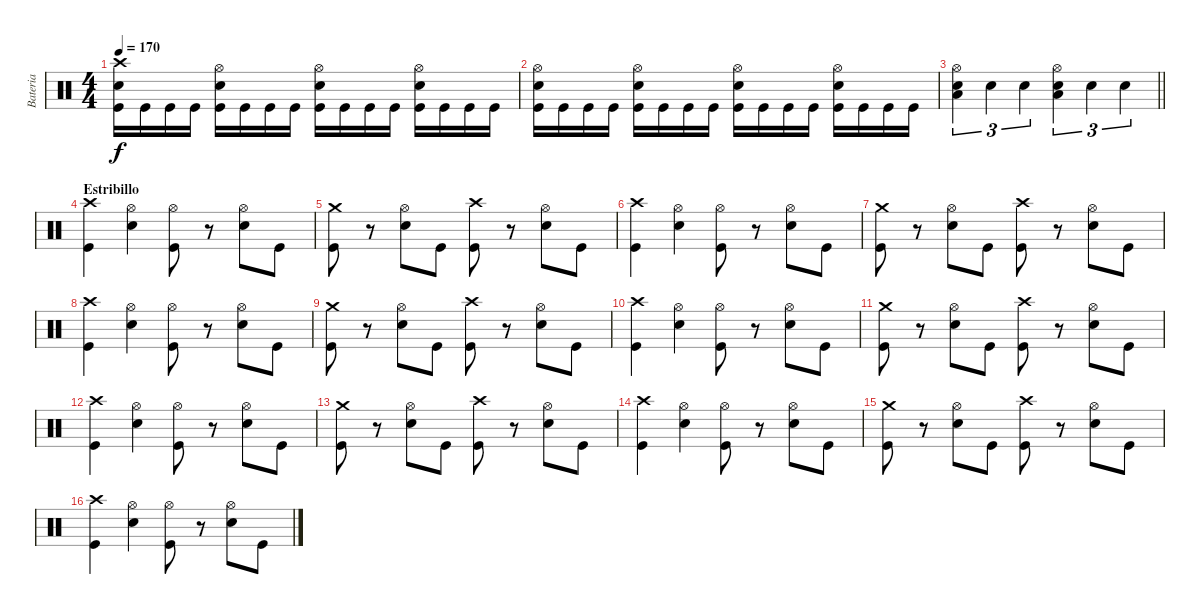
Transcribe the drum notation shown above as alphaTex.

\track ("Bateria" "Bateria") {instrument percussion}
\staff {score}
\articulation defaults
\ts (4 4)
\tempo 170
\clef neutral
\ks c
("Snare (hit) 2" "Kick (hit)" "Crash high (hit)").16{dy f} "Kick (hit)".16 "Kick (hit)".16 "Kick (hit)".16 ("Snare (hit) 2" "Kick (hit)" "Hi-Hat (open)").16 "Kick (hit)".16 "Kick (hit)".16 "Kick (hit)".16 ("Snare (hit) 2" "Kick (hit)" "Hi-Hat (open)").16 "Kick (hit)".16 "Kick (hit)".16 "Kick (hit)".16 ("Snare (hit) 2" "Kick (hit)" "Hi-Hat (open)").16 "Kick (hit)".16 "Kick (hit)".16 "Kick (hit)".16 |
("Snare (hit) 2" "Kick (hit)" "Hi-Hat (open)").16 "Kick (hit)".16 "Kick (hit)".16 "Kick (hit)".16 ("Snare (hit) 2" "Kick (hit)" "Hi-Hat (open)").16 "Kick (hit)".16 "Kick (hit)".16 "Kick (hit)".16 ("Snare (hit) 2" "Kick (hit)" "Hi-Hat (open)").16 "Kick (hit)".16 "Kick (hit)".16 "Kick (hit)".16 ("Snare (hit) 2" "Kick (hit)" "Hi-Hat (open)").16 "Kick (hit)".16 "Kick (hit)".16 "Kick (hit)".16 |
\barLineRight lightlight
("Snare (hit) 2" "Hi-Hat (open)" "Low Tom (hit)").4{tu (3 2)} "Snare (hit) 2".4{tu (3 2)} "Snare (hit) 2".4{tu (3 2)} ("Snare (hit) 2" "Hi-Hat (open)" "Low Tom (hit)").4{tu (3 2)} "Snare (hit) 2".4{tu (3 2)} "Snare (hit) 2".4{tu (3 2)} |
\section ("" "Estribillo")
("Kick (hit)" "Crash high (hit)").4 ("Snare (hit) 2" "Hi-Hat (open)").4 ("Kick (hit)" "Hi-Hat (open)").8 r.8 ("Snare (hit) 2" "Hi-Hat (open)").8 "Kick (hit)".8 |
("Kick (hit)" "Crash medium (hit)").8 r.8 ("Snare (hit) 2" "Hi-Hat (open)").8 "Kick (hit)".8 ("Kick (hit)" "Crash high (hit)").8 r.8 ("Snare (hit) 2" "Hi-Hat (open)").8 "Kick (hit)".8 |
("Kick (hit)" "Crash high (hit)").4 ("Snare (hit) 2" "Hi-Hat (open)").4 ("Kick (hit)" "Hi-Hat (open)").8 r.8 ("Snare (hit) 2" "Hi-Hat (open)").8 "Kick (hit)".8 |
("Kick (hit)" "Crash medium (hit)").8 r.8 ("Snare (hit) 2" "Hi-Hat (open)").8 "Kick (hit)".8 ("Kick (hit)" "Crash high (hit)").8 r.8 ("Snare (hit) 2" "Hi-Hat (open)").8 "Kick (hit)".8 |
("Kick (hit)" "Crash high (hit)").4 ("Snare (hit) 2" "Hi-Hat (open)").4 ("Kick (hit)" "Hi-Hat (open)").8 r.8 ("Snare (hit) 2" "Hi-Hat (open)").8 "Kick (hit)".8 |
("Kick (hit)" "Crash medium (hit)").8 r.8 ("Snare (hit) 2" "Hi-Hat (open)").8 "Kick (hit)".8 ("Kick (hit)" "Crash high (hit)").8 r.8 ("Snare (hit) 2" "Hi-Hat (open)").8 "Kick (hit)".8 |
("Kick (hit)" "Crash high (hit)").4 ("Snare (hit) 2" "Hi-Hat (open)").4 ("Kick (hit)" "Hi-Hat (open)").8 r.8 ("Snare (hit) 2" "Hi-Hat (open)").8 "Kick (hit)".8 |
("Kick (hit)" "Crash medium (hit)").8 r.8 ("Snare (hit) 2" "Hi-Hat (open)").8 "Kick (hit)".8 ("Kick (hit)" "Crash high (hit)").8 r.8 ("Snare (hit) 2" "Hi-Hat (open)").8 "Kick (hit)".8 |
("Kick (hit)" "Crash high (hit)").4 ("Snare (hit) 2" "Hi-Hat (open)").4 ("Kick (hit)" "Hi-Hat (open)").8 r.8 ("Snare (hit) 2" "Hi-Hat (open)").8 "Kick (hit)".8 |
("Kick (hit)" "Crash medium (hit)").8 r.8 ("Snare (hit) 2" "Hi-Hat (open)").8 "Kick (hit)".8 ("Kick (hit)" "Crash high (hit)").8 r.8 ("Snare (hit) 2" "Hi-Hat (open)").8 "Kick (hit)".8 |
("Kick (hit)" "Crash high (hit)").4 ("Snare (hit) 2" "Hi-Hat (open)").4 ("Kick (hit)" "Hi-Hat (open)").8 r.8 ("Snare (hit) 2" "Hi-Hat (open)").8 "Kick (hit)".8 |
("Kick (hit)" "Crash medium (hit)").8 r.8 ("Snare (hit) 2" "Hi-Hat (open)").8 "Kick (hit)".8 ("Kick (hit)" "Crash high (hit)").8 r.8 ("Snare (hit) 2" "Hi-Hat (open)").8 "Kick (hit)".8 |
("Kick (hit)" "Crash high (hit)").4 ("Snare (hit) 2" "Hi-Hat (open)").4 ("Kick (hit)" "Hi-Hat (open)").8 r.8 ("Snare (hit) 2" "Hi-Hat (open)").8 "Kick (hit)".8
